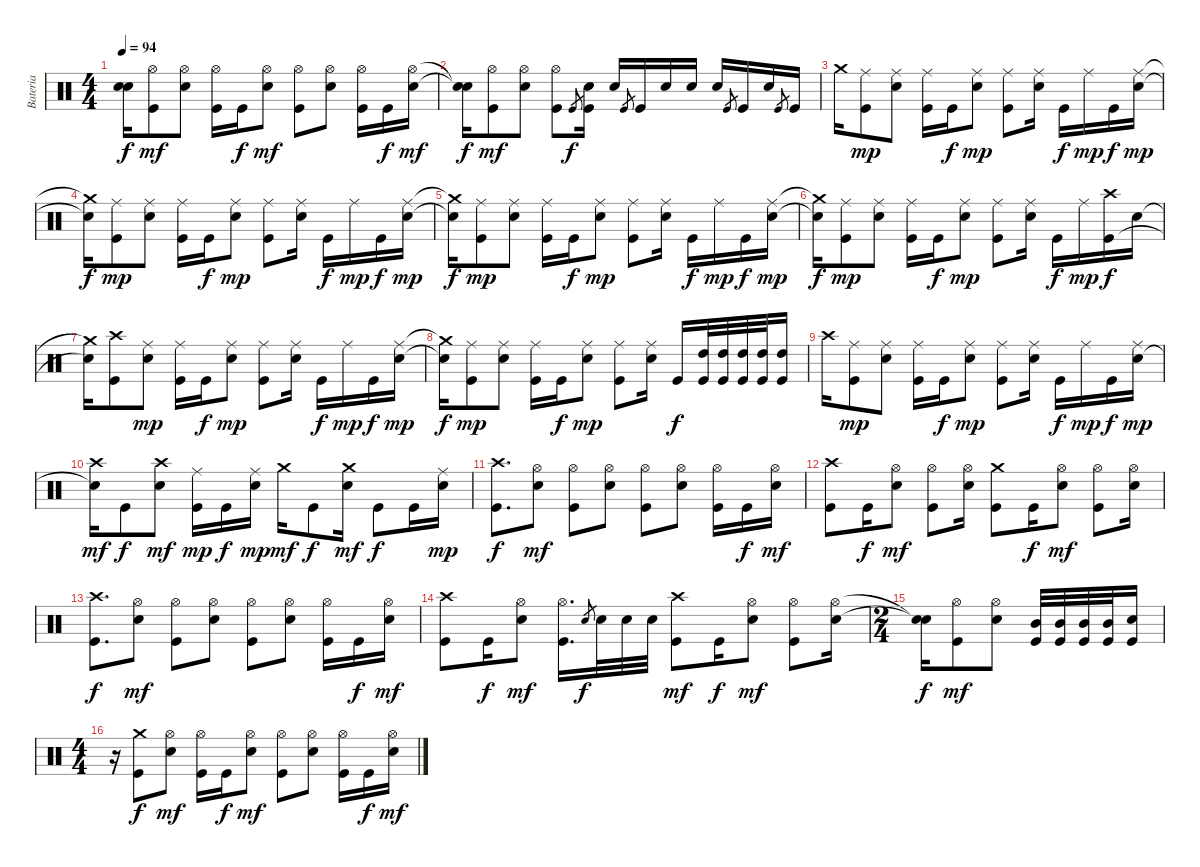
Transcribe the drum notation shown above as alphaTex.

\track ("Bateria" "Bateria") {instrument percussion}
\staff {score}
\articulation defaults
\ts (4 4)
\tempo 94
\clef neutral
\ks c
("Snare (hit)"{t} "Snare (hit)"{t}).16{dy f} ("Hi-Hat (open)" "Kick (hit)").8{dy mf} ("Hi-Hat (open)" "Snare (hit) 2").8 ("Hi-Hat (open)" "Kick (hit)").16 "Kick (hit)".16{dy f} ("Hi-Hat (open)" "Snare (hit) 2").8{dy mf} ("Hi-Hat (open)" "Kick (hit)").8 ("Hi-Hat (open)" "Snare (hit) 2").8 ("Hi-Hat (open)" "Kick (hit)").16 "Kick (hit)".16{dy f} ("Hi-Hat (open)" "Snare (hit) 2").16{dy mf} |
("Snare (hit)"{t} "Snare (hit)"{t}).16{dy f} ("Hi-Hat (open)" "Kick (hit)").8{dy mf} ("Hi-Hat (open)" "Snare (hit) 2").8 ("Hi-Hat (open)" "Kick (hit)").8 "Kick (hit)".8{gr dy f} ("Snare (hit) 2" "Kick (hit)").16 "Snare (hit) 2".16 "Kick (hit)".8{gr} "Kick (hit)".16 "Snare (hit) 2".16 "Snare (hit) 2".16 "Snare (hit) 2".16 "Kick (hit)".8{gr} "Kick (hit)".16 "Snare (hit) 2".16 "Kick (hit)".8{gr} "Kick (hit)".16 |
"Crash medium (hit)".16 ("Ride (middle)" "Kick (hit)").8{dy mp} ("Ride (middle)" "Snare (hit) 2").8 ("Ride (middle)" "Kick (hit)").16 "Kick (hit)".16{dy f} ("Ride (middle)" "Snare (hit) 2").8{dy mp} ("Ride (middle)" "Kick (hit)").8 ("Ride (middle)" "Snare (hit) 2").16 "Kick (hit)".16{dy f} "Ride (middle)".16{dy mp} "Kick (hit)".16{dy f} ("Ride (middle)" "Snare (hit) 2").16{dy mp} |
("Crash medium (hit)"{t} "Snare (hit)"{t}).16{dy f} ("Ride (middle)" "Kick (hit)").8{dy mp} ("Ride (middle)" "Snare (hit) 2").8 ("Ride (middle)" "Kick (hit)").16 "Kick (hit)".16{dy f} ("Ride (middle)" "Snare (hit) 2").8{dy mp} ("Ride (middle)" "Kick (hit)").8 ("Ride (middle)" "Snare (hit) 2").16 "Kick (hit)".16{dy f} "Ride (middle)".16{dy mp} "Kick (hit)".16{dy f} ("Ride (middle)" "Snare (hit) 2").16{dy mp} |
("Crash medium (hit)"{t} "Snare (hit)"{t}).16{dy f} ("Ride (middle)" "Kick (hit)").8{dy mp} ("Ride (middle)" "Snare (hit) 2").8 ("Ride (middle)" "Kick (hit)").16 "Kick (hit)".16{dy f} ("Ride (middle)" "Snare (hit) 2").8{dy mp} ("Ride (middle)" "Kick (hit)").8 ("Ride (middle)" "Snare (hit) 2").16 "Kick (hit)".16{dy f} "Ride (middle)".16{dy mp} "Kick (hit)".16{dy f} ("Ride (middle)" "Snare (hit) 2").16{dy mp} |
("Crash medium (hit)"{t} "Snare (hit)"{t}).16{dy f} ("Ride (middle)" "Kick (hit)").8{dy mp} ("Ride (middle)" "Snare (hit) 2").8 ("Ride (middle)" "Kick (hit)").16 "Kick (hit)".16{dy f} ("Ride (middle)" "Snare (hit) 2").8{dy mp} ("Ride (middle)" "Kick (hit)").8 ("Ride (middle)" "Snare (hit) 2").16 "Kick (hit)".16{dy f} "Ride (middle)".16{dy mp} ("Crash high (hit)" "Kick (hit)").16{dy f} "Snare (hit) 2".16 |
("Crash medium (hit)"{t} "Snare (hit)"{t}).16 ("Crash high (hit)" "Kick (hit)").8 ("Ride (middle)" "Snare (hit) 2").8{dy mp} ("Ride (middle)" "Kick (hit)").16 "Kick (hit)".16{dy f} ("Ride (middle)" "Snare (hit) 2").8{dy mp} ("Ride (middle)" "Kick (hit)").8 ("Ride (middle)" "Snare (hit) 2").16 "Kick (hit)".16{dy f} "Ride (middle)".16{dy mp} "Kick (hit)".16{dy f} ("Ride (middle)" "Snare (hit) 2").16{dy mp} |
("Crash medium (hit)"{t} "Snare (hit)"{t}).16{dy f} ("Ride (middle)" "Kick (hit)").8{dy mp} ("Ride (middle)" "Snare (hit) 2").8 ("Ride (middle)" "Kick (hit)").16 "Kick (hit)".16{dy f} ("Ride (middle)" "Snare (hit) 2").8{dy mp} ("Ride (middle)" "Kick (hit)").8 ("Ride (middle)" "Snare (hit) 2").16 "Kick (hit)".16{dy f} ("High Tom (hit)" "Kick (hit)").32 ("High Tom (hit)" "Kick (hit)").32 ("High Tom (hit)" "Kick (hit)").32 ("High Tom (hit)" "Kick (hit)").32 ("High Tom (hit)" "Kick (hit)").16 |
"Crash high (hit)".16 ("Ride (middle)" "Kick (hit)").8{dy mp} ("Ride (middle)" "Snare (hit) 2").8 ("Ride (middle)" "Kick (hit)").16 "Kick (hit)".16{dy f} ("Ride (middle)" "Snare (hit) 2").8{dy mp} ("Ride (middle)" "Kick (hit)").8 ("Ride (middle)" "Snare (hit) 2").16 "Kick (hit)".16{dy f} "Ride (middle)".16{dy mp} "Kick (hit)".16{dy f} ("Ride (middle)" "Snare (hit) 2").16{dy mp} |
("Crash high (hit)" "Snare (hit)"{t}).16{dy mf} "Kick (hit)".8{dy f} ("Crash high (hit)" "Snare (hit) 2").8{dy mf} ("Ride (middle)" "Kick (hit)").16{dy mp} "Kick (hit)".16{dy f} ("Ride (middle)" "Snare (hit) 2").16{dy mp} "Crash medium (hit)".16{dy mf} "Kick (hit)".8{dy f} ("Crash medium (hit)" "Snare (hit) 2").16{dy mf} "Kick (hit)".8{dy f} "Kick (hit)".16 ("Ride (middle)" "Snare (hit) 2").16{dy mp} |
("Crash high (hit)" "Kick (hit)").8{d dy f} ("Hi-Hat (open)" "Snare (hit) 2").8{dy mf} ("Hi-Hat (open)" "Kick (hit)").8 ("Hi-Hat (open)" "Snare (hit) 2").8 ("Hi-Hat (open)" "Kick (hit)").8 ("Hi-Hat (open)" "Snare (hit) 2").8 ("Hi-Hat (open)" "Kick (hit)").16 "Kick (hit)".16{dy f} ("Hi-Hat (open)" "Snare (hit) 2").16{dy mf} |
("Crash high (hit)" "Kick (hit)").8 "Kick (hit)".16{dy f} ("Hi-Hat (open)" "Snare (hit) 2").8{dy mf} ("Hi-Hat (open)" "Kick (hit)").8 ("Hi-Hat (open)" "Snare (hit) 2").16 ("Crash medium (hit)" "Kick (hit)").8 "Kick (hit)".16{dy f} ("Hi-Hat (open)" "Snare (hit) 2").8{dy mf} ("Hi-Hat (open)" "Kick (hit)").8 ("Hi-Hat (open)" "Snare (hit) 2").16 |
("Crash high (hit)" "Kick (hit)").8{d dy f} ("Hi-Hat (open)" "Snare (hit) 2").8{dy mf} ("Hi-Hat (open)" "Kick (hit)").8 ("Hi-Hat (open)" "Snare (hit) 2").8 ("Hi-Hat (open)" "Kick (hit)").8 ("Hi-Hat (open)" "Snare (hit) 2").8 ("Hi-Hat (open)" "Kick (hit)").16 "Kick (hit)".16{dy f} ("Hi-Hat (open)" "Snare (hit) 2").16{dy mf} |
("Crash high (hit)" "Kick (hit)").8 "Kick (hit)".16{dy f} ("Hi-Hat (open)" "Snare (hit) 2").8{dy mf} ("Hi-Hat (open)" "Kick (hit)").16{d} "Snare (hit) 2".8{gr dy f} "Snare (hit) 2".32 "Snare (hit) 2".32 "Snare (hit) 2".32 ("Crash high (hit)" "Kick (hit)").8{dy mf} "Kick (hit)".16{dy f} ("Hi-Hat (open)" "Snare (hit) 2").8{dy mf} ("Hi-Hat (open)" "Kick (hit)").8 ("Hi-Hat (open)" "Snare (hit) 2").16 |
\ts (2 4)
("Snare (hit)"{t} "Snare (hit)"{t}).16{dy f} ("Hi-Hat (open)" "Kick (hit)").8{dy mf} ("Hi-Hat (open)" "Snare (hit) 2").8 ("Mid Tom (hit)" "Kick (hit)").32 ("Mid Tom (hit)" "Kick (hit)").32 ("Mid Tom (hit)" "Kick (hit)").32 ("Mid Tom (hit)" "Kick (hit)").32 ("Snare (hit) 2" "Kick (hit)").16 |
\ts (4 4)
r.16 ("Crash medium (hit)" "Kick (hit)").8{dy f} ("Hi-Hat (open)" "Snare (hit) 2").8{dy mf} ("Hi-Hat (open)" "Kick (hit)").16 "Kick (hit)".16{dy f} ("Hi-Hat (open)" "Snare (hit) 2").8{dy mf} ("Hi-Hat (open)" "Kick (hit)").8 ("Hi-Hat (open)" "Snare (hit) 2").8 ("Hi-Hat (open)" "Kick (hit)").16 "Kick (hit)".16{dy f} ("Hi-Hat (open)" "Snare (hit) 2").16{dy mf}
